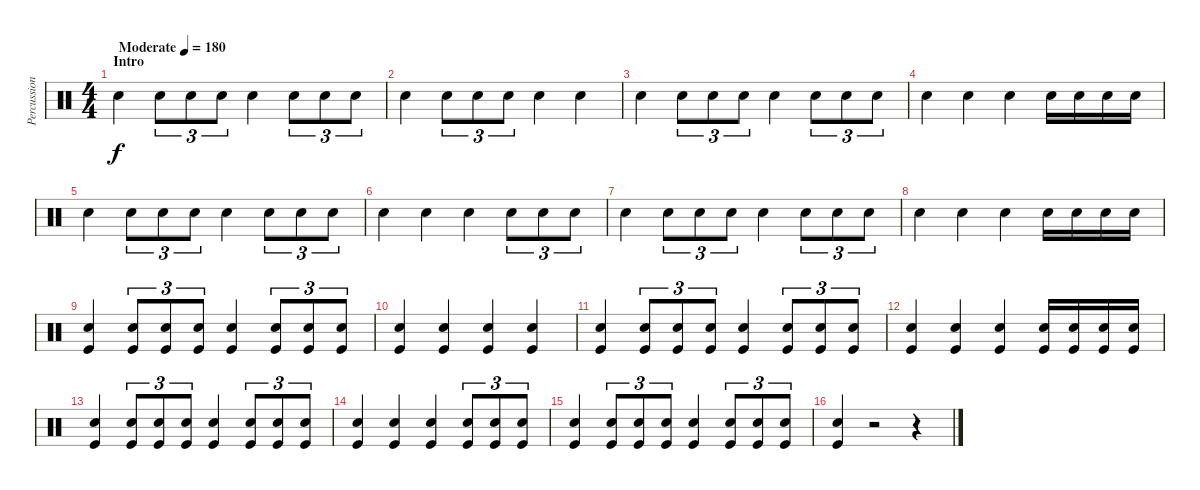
\track ("Percussion" "Percussion") {instrument percussion}
\staff {score}
\articulation defaults
\ts (4 4)
\section ("" "Intro")
\tempo (180 "Moderate")
\clef neutral
\ks c "Snare (hit) 2".4{dy f} "Snare (hit) 2".8{tu (3 2)} "Snare (hit) 2".8{tu (3 2)} "Snare (hit) 2".8{tu (3 2)} "Snare (hit) 2".4 "Snare (hit) 2".8{tu (3 2)} "Snare (hit) 2".8{tu (3 2)} "Snare (hit) 2".8{tu (3 2)}
|
"Snare (hit) 2".4 "Snare (hit) 2".8{tu (3 2)} "Snare (hit) 2".8{tu (3 2)} "Snare (hit) 2".8{tu (3 2)} "Snare (hit) 2".4 "Snare (hit) 2".4 |
"Snare (hit) 2".4 "Snare (hit) 2".8{tu (3 2)} "Snare (hit) 2".8{tu (3 2)} "Snare (hit) 2".8{tu (3 2)} "Snare (hit) 2".4 "Snare (hit) 2".8{tu (3 2)} "Snare (hit) 2".8{tu (3 2)} "Snare (hit) 2".8{tu (3 2)} |
"Snare (hit) 2".4 "Snare (hit) 2".4 "Snare (hit) 2".4 "Snare (hit) 2".16 "Snare (hit) 2".16 "Snare (hit) 2".16 "Snare (hit) 2".16 |
"Snare (hit) 2".4 "Snare (hit) 2".8{tu (3 2)} "Snare (hit) 2".8{tu (3 2)} "Snare (hit) 2".8{tu (3 2)} "Snare (hit) 2".4 "Snare (hit) 2".8{tu (3 2)} "Snare (hit) 2".8{tu (3 2)} "Snare (hit) 2".8{tu (3 2)} |
"Snare (hit) 2".4 "Snare (hit) 2".4 "Snare (hit) 2".4 "Snare (hit) 2".8{tu (3 2)} "Snare (hit) 2".8{tu (3 2)} "Snare (hit) 2".8{tu (3 2)} |
"Snare (hit) 2".4 "Snare (hit) 2".8{tu (3 2)} "Snare (hit) 2".8{tu (3 2)} "Snare (hit) 2".8{tu (3 2)} "Snare (hit) 2".4 "Snare (hit) 2".8{tu (3 2)} "Snare (hit) 2".8{tu (3 2)} "Snare (hit) 2".8{tu (3 2)} |
"Snare (hit) 2".4 "Snare (hit) 2".4 "Snare (hit) 2".4 "Snare (hit) 2".16 "Snare (hit) 2".16 "Snare (hit) 2".16 "Snare (hit) 2".16 |
("Snare (hit) 2" "Kick (hit)").4 ("Snare (hit) 2" "Kick (hit)").8{tu (3 2)} ("Snare (hit) 2" "Kick (hit)").8{tu (3 2)} ("Snare (hit) 2" "Kick (hit)").8{tu (3 2)} ("Snare (hit) 2" "Kick (hit)").4 ("Snare (hit) 2" "Kick (hit)").8{tu (3 2)} ("Snare (hit) 2" "Kick (hit)").8{tu (3 2)} ("Snare (hit) 2" "Kick (hit)").8{tu (3 2)} |
("Snare (hit) 2" "Kick (hit)").4 ("Snare (hit) 2" "Kick (hit)").4 ("Snare (hit) 2" "Kick (hit)").4 ("Snare (hit) 2" "Kick (hit)").4 |
("Snare (hit) 2" "Kick (hit)").4 ("Snare (hit) 2" "Kick (hit)").8{tu (3 2)} ("Snare (hit) 2" "Kick (hit)").8{tu (3 2)} ("Snare (hit) 2" "Kick (hit)").8{tu (3 2)} ("Snare (hit) 2" "Kick (hit)").4 ("Snare (hit) 2" "Kick (hit)").8{tu (3 2)} ("Snare (hit) 2" "Kick (hit)").8{tu (3 2)} ("Snare (hit) 2" "Kick (hit)").8{tu (3 2)} |
("Snare (hit) 2" "Kick (hit)").4 ("Snare (hit) 2" "Kick (hit)").4 ("Snare (hit) 2" "Kick (hit)").4 ("Snare (hit) 2" "Kick (hit)").16 ("Snare (hit) 2" "Kick (hit)").16 ("Snare (hit) 2" "Kick (hit)").16 ("Snare (hit) 2" "Kick (hit)").16 |
("Snare (hit) 2" "Kick (hit)").4 ("Snare (hit) 2" "Kick (hit)").8{tu (3 2)} ("Snare (hit) 2" "Kick (hit)").8{tu (3 2)} ("Snare (hit) 2" "Kick (hit)").8{tu (3 2)} ("Snare (hit) 2" "Kick (hit)").4 ("Snare (hit) 2" "Kick (hit)").8{tu (3 2)} ("Snare (hit) 2" "Kick (hit)").8{tu (3 2)} ("Snare (hit) 2" "Kick (hit)").8{tu (3 2)} |
("Snare (hit) 2" "Kick (hit)").4 ("Snare (hit) 2" "Kick (hit)").4 ("Snare (hit) 2" "Kick (hit)").4 ("Snare (hit) 2" "Kick (hit)").8{tu (3 2)} ("Snare (hit) 2" "Kick (hit)").8{tu (3 2)} ("Snare (hit) 2" "Kick (hit)").8{tu (3 2)} |
("Snare (hit) 2" "Kick (hit)").4 ("Snare (hit) 2" "Kick (hit)").8{tu (3 2)} ("Snare (hit) 2" "Kick (hit)").8{tu (3 2)} ("Snare (hit) 2" "Kick (hit)").8{tu (3 2)} ("Snare (hit) 2" "Kick (hit)").4 ("Snare (hit) 2" "Kick (hit)").8{tu (3 2)} ("Snare (hit) 2" "Kick (hit)").8{tu (3 2)} ("Snare (hit) 2" "Kick (hit)").8{tu (3 2)} |
("Snare (hit) 2" "Kick (hit)").4 r.2 r.4
